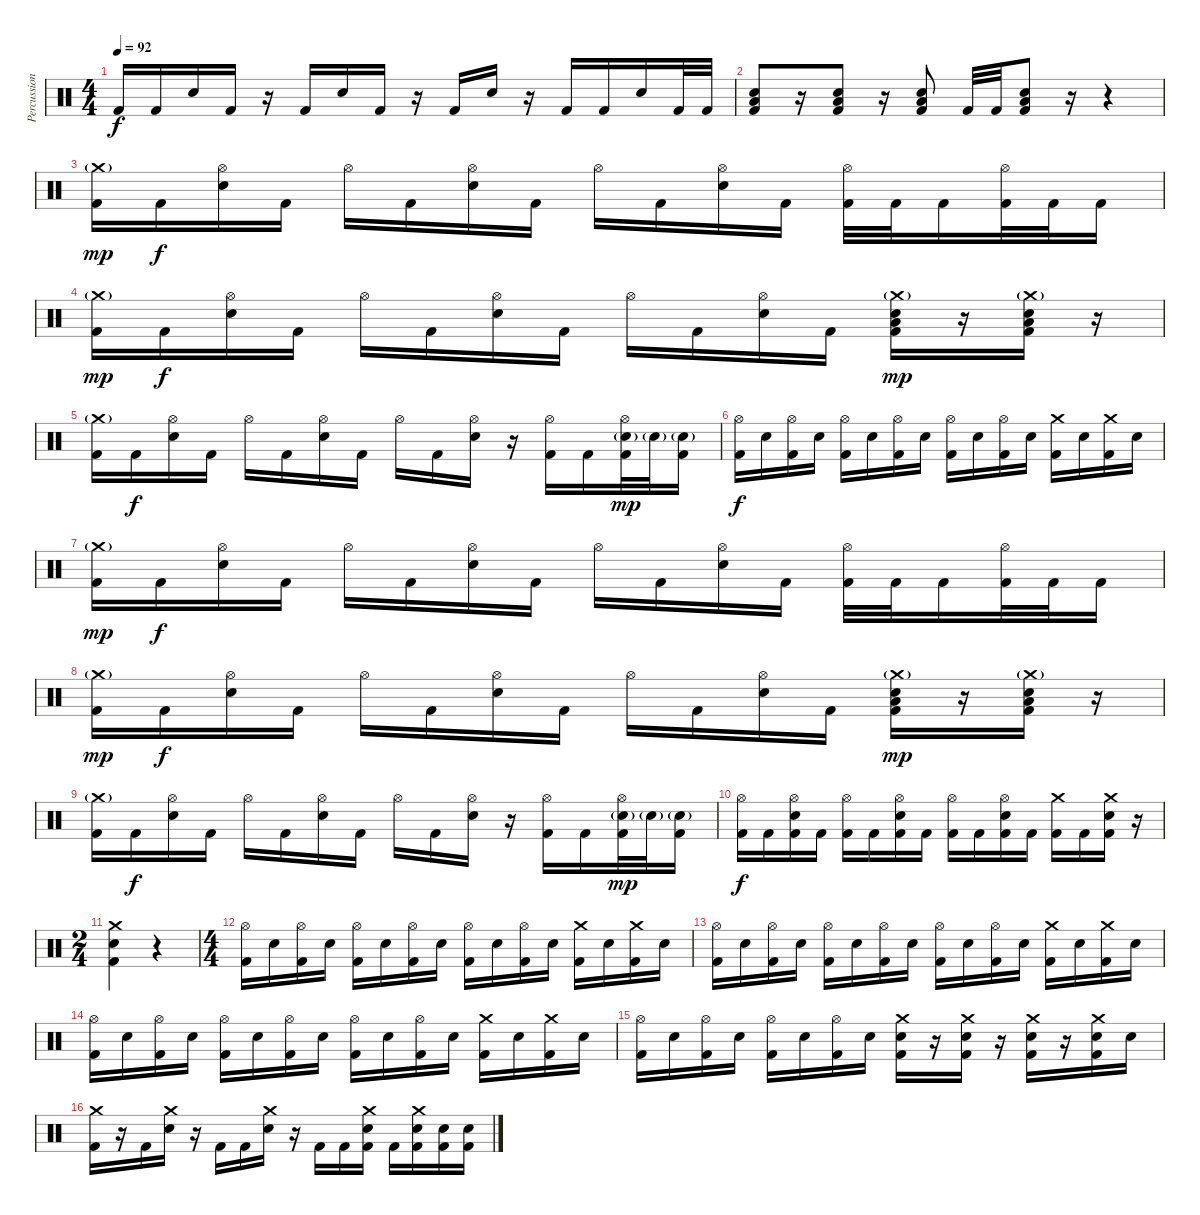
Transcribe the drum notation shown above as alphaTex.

\track ("Percussion" "Percussion") {instrument percussion}
\staff {score}
\articulation defaults
\ts (4 4)
\tempo 92
\clef neutral
\ks c "Kick (hit) 2".16{dy f} "Kick (hit) 2".16 "Electric Snare (hit)".16 "Kick (hit) 2".16
r.16 "Kick (hit) 2".16 "Electric Snare (hit)".16 "Kick (hit) 2".16 r.16 "Kick (hit) 2".16 "Electric Snare (hit)".16 r.16 "Kick (hit) 2".16 "Kick (hit) 2".16 "Electric Snare (hit)".16 "Kick (hit) 2".32 "Kick (hit) 2".32 |
("Low Floor Tom (hit)" "Electric Snare (hit)" "Kick (hit) 2").8 r.16 ("Low Floor Tom (hit)" "Electric Snare (hit)" "Kick (hit) 2").8 r.16 ("Low Floor Tom (hit)" "Electric Snare (hit)" "Kick (hit) 2").8 "Kick (hit) 2".32 "Kick (hit) 2".32 ("Low Floor Tom (hit)" "Electric Snare (hit)" "Kick (hit) 2").8 r.16 r.4 |
("Crash medium (hit)"{g} "Kick (hit) 2").16{dy mp} "Kick (hit) 2".16{dy f} ("Hi-Hat (open)" "Electric Snare (hit)").16 "Kick (hit) 2".16 "Hi-Hat (open)".16 "Kick (hit) 2".16 ("Hi-Hat (open)" "Electric Snare (hit)").16 "Kick (hit) 2".16 "Hi-Hat (open)".16 "Kick (hit) 2".16 ("Hi-Hat (open)" "Electric Snare (hit)").16 "Kick (hit) 2".16 ("Hi-Hat (open)" "Kick (hit) 2").32 "Kick (hit) 2".32 "Kick (hit) 2".16 ("Hi-Hat (open)" "Kick (hit) 2").32 "Kick (hit) 2".32 "Kick (hit) 2".16 |
("Crash medium (hit)"{g} "Kick (hit) 2").16{dy mp} "Kick (hit) 2".16{dy f} ("Hi-Hat (open)" "Electric Snare (hit)").16 "Kick (hit) 2".16 "Hi-Hat (open)".16 "Kick (hit) 2".16 ("Hi-Hat (open)" "Electric Snare (hit)").16 "Kick (hit) 2".16 "Hi-Hat (open)".16 "Kick (hit) 2".16 ("Hi-Hat (open)" "Electric Snare (hit)").16 "Kick (hit) 2".16 ("Crash medium (hit)"{g} "Low Floor Tom (hit)" "Electric Snare (hit)" "Kick (hit) 2").16{dy mp} r.16 ("Crash medium (hit)"{g} "Low Floor Tom (hit)" "Electric Snare (hit)" "Kick (hit) 2").16 r.16 |
("Crash medium (hit)"{g} "Kick (hit) 2").16 "Kick (hit) 2".16{dy f} ("Hi-Hat (open)" "Electric Snare (hit)").16 "Kick (hit) 2".16 "Hi-Hat (open)".16 "Kick (hit) 2".16 ("Hi-Hat (open)" "Electric Snare (hit)").16 "Kick (hit) 2".16 "Hi-Hat (open)".16 "Kick (hit) 2".16 ("Hi-Hat (open)" "Electric Snare (hit)").16 r.16 ("Hi-Hat (open)" "Kick (hit) 2").16 "Kick (hit) 2".16 ("Hi-Hat (open)" "Electric Snare (hit)"{g} "Kick (hit) 2").32{dy mp} "Electric Snare (hit)"{g}.32 ("Electric Snare (hit)"{g} "Kick (hit) 2").16 |
("Hi-Hat (open)" "Kick (hit) 2").16{dy f} "Electric Snare (hit)".16 ("Hi-Hat (open)" "Kick (hit) 2").16 "Electric Snare (hit)".16 ("Hi-Hat (open)" "Kick (hit) 2").16 "Electric Snare (hit)".16 ("Hi-Hat (open)" "Kick (hit) 2").16 "Electric Snare (hit)".16 ("Hi-Hat (open)" "Kick (hit) 2").16 "Electric Snare (hit)".16 ("Hi-Hat (open)" "Kick (hit) 2").16 "Electric Snare (hit)".16 ("Crash medium (hit)" "Kick (hit) 2").16 "Electric Snare (hit)".16 ("Crash medium (hit)" "Kick (hit) 2").16 "Electric Snare (hit)".16 |
("Crash medium (hit)"{g} "Kick (hit) 2").16{dy mp} "Kick (hit) 2".16{dy f} ("Hi-Hat (open)" "Electric Snare (hit)").16 "Kick (hit) 2".16 "Hi-Hat (open)".16 "Kick (hit) 2".16 ("Hi-Hat (open)" "Electric Snare (hit)").16 "Kick (hit) 2".16 "Hi-Hat (open)".16 "Kick (hit) 2".16 ("Hi-Hat (open)" "Electric Snare (hit)").16 "Kick (hit) 2".16 ("Hi-Hat (open)" "Kick (hit) 2").32 "Kick (hit) 2".32 "Kick (hit) 2".16 ("Hi-Hat (open)" "Kick (hit) 2").32 "Kick (hit) 2".32 "Kick (hit) 2".16 |
("Crash medium (hit)"{g} "Kick (hit) 2").16{dy mp} "Kick (hit) 2".16{dy f} ("Hi-Hat (open)" "Electric Snare (hit)").16 "Kick (hit) 2".16 "Hi-Hat (open)".16 "Kick (hit) 2".16 ("Hi-Hat (open)" "Electric Snare (hit)").16 "Kick (hit) 2".16 "Hi-Hat (open)".16 "Kick (hit) 2".16 ("Hi-Hat (open)" "Electric Snare (hit)").16 "Kick (hit) 2".16 ("Crash medium (hit)"{g} "Low Floor Tom (hit)" "Electric Snare (hit)" "Kick (hit) 2").16{dy mp} r.16 ("Crash medium (hit)"{g} "Low Floor Tom (hit)" "Electric Snare (hit)" "Kick (hit) 2").16 r.16 |
("Crash medium (hit)"{g} "Kick (hit) 2").16 "Kick (hit) 2".16{dy f} ("Hi-Hat (open)" "Electric Snare (hit)").16 "Kick (hit) 2".16 "Hi-Hat (open)".16 "Kick (hit) 2".16 ("Hi-Hat (open)" "Electric Snare (hit)").16 "Kick (hit) 2".16 "Hi-Hat (open)".16 "Kick (hit) 2".16 ("Hi-Hat (open)" "Electric Snare (hit)").16 r.16 ("Hi-Hat (open)" "Kick (hit) 2").16 "Kick (hit) 2".16 ("Hi-Hat (open)" "Electric Snare (hit)"{g} "Kick (hit) 2").32{dy mp} "Electric Snare (hit)"{g}.32 ("Electric Snare (hit)"{g} "Kick (hit) 2").16 |
("Hi-Hat (open)" "Kick (hit) 2").16{dy f} "Kick (hit) 2".16 ("Hi-Hat (open)" "Electric Snare (hit)" "Kick (hit) 2").16 "Kick (hit) 2".16 ("Hi-Hat (open)" "Kick (hit) 2").16 "Kick (hit) 2".16 ("Hi-Hat (open)" "Electric Snare (hit)" "Kick (hit) 2").16 "Kick (hit) 2".16 ("Hi-Hat (open)" "Kick (hit) 2").16 "Kick (hit) 2".16 ("Hi-Hat (open)" "Electric Snare (hit)" "Kick (hit) 2").16 "Kick (hit) 2".16 ("Crash medium (hit)" "Kick (hit) 2").16 "Kick (hit) 2".16 ("Crash medium (hit)" "Electric Snare (hit)" "Kick (hit) 2").16 r.16 |
\ts (2 4)
("Crash medium (hit)" "Electric Snare (hit)" "Kick (hit) 2").4 r.4 |
\ts (4 4)
("Hi-Hat (open)" "Kick (hit) 2").16 "Electric Snare (hit)".16 ("Hi-Hat (open)" "Kick (hit) 2").16 "Electric Snare (hit)".16 ("Hi-Hat (open)" "Kick (hit) 2").16 "Electric Snare (hit)".16 ("Hi-Hat (open)" "Kick (hit) 2").16 "Electric Snare (hit)".16 ("Hi-Hat (open)" "Kick (hit) 2").16 "Electric Snare (hit)".16 ("Hi-Hat (open)" "Kick (hit) 2").16 "Electric Snare (hit)".16 ("Crash medium (hit)" "Kick (hit) 2").16 "Electric Snare (hit)".16 ("Crash medium (hit)" "Kick (hit) 2").16 "Electric Snare (hit)".16 |
("Hi-Hat (open)" "Kick (hit) 2").16 "Electric Snare (hit)".16 ("Hi-Hat (open)" "Kick (hit) 2").16 "Electric Snare (hit)".16 ("Hi-Hat (open)" "Kick (hit) 2").16 "Electric Snare (hit)".16 ("Hi-Hat (open)" "Kick (hit) 2").16 "Electric Snare (hit)".16 ("Hi-Hat (open)" "Kick (hit) 2").16 "Electric Snare (hit)".16 ("Hi-Hat (open)" "Kick (hit) 2").16 "Electric Snare (hit)".16 ("Crash medium (hit)" "Kick (hit) 2").16 "Electric Snare (hit)".16 ("Crash medium (hit)" "Kick (hit) 2").16 "Electric Snare (hit)".16 |
("Hi-Hat (open)" "Kick (hit) 2").16 "Electric Snare (hit)".16 ("Hi-Hat (open)" "Kick (hit) 2").16 "Electric Snare (hit)".16 ("Hi-Hat (open)" "Kick (hit) 2").16 "Electric Snare (hit)".16 ("Hi-Hat (open)" "Kick (hit) 2").16 "Electric Snare (hit)".16 ("Hi-Hat (open)" "Kick (hit) 2").16 "Electric Snare (hit)".16 ("Hi-Hat (open)" "Kick (hit) 2").16 "Electric Snare (hit)".16 ("Crash medium (hit)" "Kick (hit) 2").16 "Electric Snare (hit)".16 ("Crash medium (hit)" "Kick (hit) 2").16 "Electric Snare (hit)".16 |
("Hi-Hat (open)" "Kick (hit) 2").16 "Electric Snare (hit)".16 ("Hi-Hat (open)" "Kick (hit) 2").16 "Electric Snare (hit)".16 ("Hi-Hat (open)" "Kick (hit) 2").16 "Electric Snare (hit)".16 ("Hi-Hat (open)" "Kick (hit) 2").16 "Electric Snare (hit)".16 ("Crash medium (hit)" "Electric Snare (hit)" "Kick (hit) 2").16 r.16 ("Crash medium (hit)" "Electric Snare (hit)" "Kick (hit) 2").16 r.16 ("Crash medium (hit)" "Electric Snare (hit)" "Kick (hit) 2").16 r.16 ("Crash medium (hit)" "Electric Snare (hit)" "Kick (hit) 2").16 "Electric Snare (hit)".16 |
("Crash medium (hit)" "Kick (hit) 2").16 r.16 "Kick (hit) 2".16 ("Crash medium (hit)" "Electric Snare (hit)").16 r.16 "Kick (hit) 2".16 "Kick (hit) 2".16 ("Crash medium (hit)" "Electric Snare (hit)").16 r.16 "Kick (hit) 2".16 "Kick (hit) 2".16 ("Crash medium (hit)" "Electric Snare (hit)" "Kick (hit) 2").16 "Kick (hit) 2".16 ("Crash medium (hit)" "Electric Snare (hit)" "Kick (hit) 2").16 ("Electric Snare (hit)" "Kick (hit) 2").16 ("Electric Snare (hit)" "Kick (hit) 2").16
